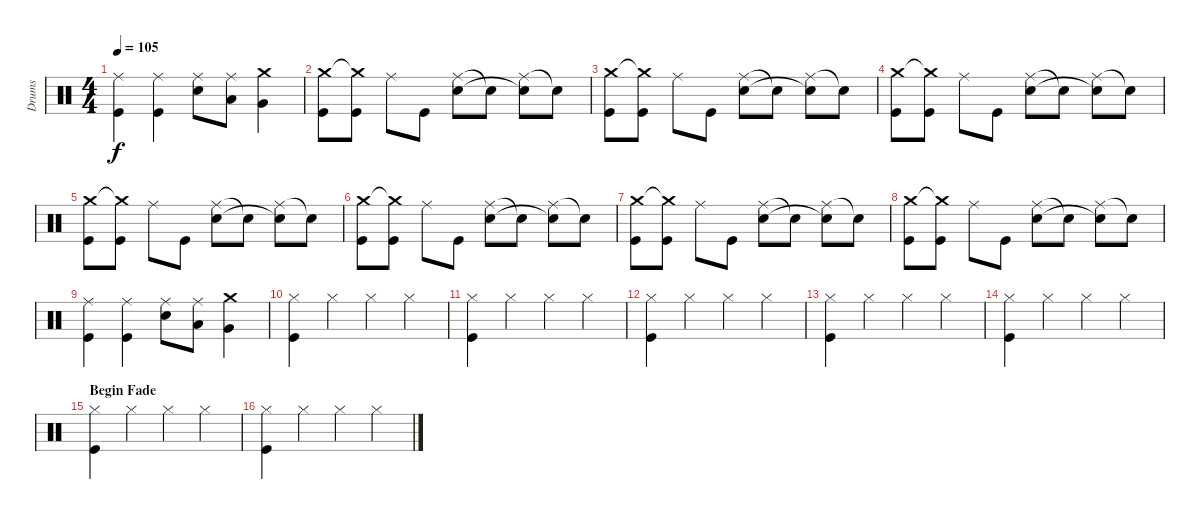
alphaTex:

\track ("Drums" "Drums") {instrument percussion}
\staff {score}
\articulation defaults
\ts (4 4)
\tempo 105
\clef neutral
\ks c
("Ride (middle)" "Kick (hit)").4{dy f} ("Ride (middle)" "Kick (hit)").4 ("Ride (middle)" "Snare (hit) 2").8 ("Ride (middle)" "Low Tom (hit)").8 ("Crash medium (hit)" "Very Low Tom (hit)").4 |
("Crash medium (hit)" "Kick (hit)").8 ("Crash medium (hit)"{t} "Kick (hit)").8 "Ride (middle)".8 "Kick (hit)".8 ("Ride (middle)" "Snare (hit) 2").8 "Snare (hit) 2"{t}.8 ("Ride (middle)" "Snare (hit) 2"{t}).8 "Snare (hit) 2"{t}.8 |
("Crash medium (hit)" "Kick (hit)").8 ("Crash medium (hit)"{t} "Kick (hit)").8 "Ride (middle)".8 "Kick (hit)".8 ("Ride (middle)" "Snare (hit) 2").8 "Snare (hit) 2"{t}.8 ("Ride (middle)" "Snare (hit) 2"{t}).8 "Snare (hit) 2"{t}.8 |
("Crash medium (hit)" "Kick (hit)").8 ("Crash medium (hit)"{t} "Kick (hit)").8 "Ride (middle)".8 "Kick (hit)".8 ("Ride (middle)" "Snare (hit) 2").8 "Snare (hit) 2"{t}.8 ("Ride (middle)" "Snare (hit) 2"{t}).8 "Snare (hit) 2"{t}.8 |
("Crash medium (hit)" "Kick (hit)").8 ("Crash medium (hit)"{t} "Kick (hit)").8 "Ride (middle)".8 "Kick (hit)".8 ("Ride (middle)" "Snare (hit) 2").8 "Snare (hit) 2"{t}.8 ("Ride (middle)" "Snare (hit) 2"{t}).8 "Snare (hit) 2"{t}.8 |
("Crash medium (hit)" "Kick (hit)").8 ("Crash medium (hit)"{t} "Kick (hit)").8 "Ride (middle)".8 "Kick (hit)".8 ("Ride (middle)" "Snare (hit) 2").8 "Snare (hit) 2"{t}.8 ("Ride (middle)" "Snare (hit) 2"{t}).8 "Snare (hit) 2"{t}.8 |
("Crash medium (hit)" "Kick (hit)").8 ("Crash medium (hit)"{t} "Kick (hit)").8 "Ride (middle)".8 "Kick (hit)".8 ("Ride (middle)" "Snare (hit) 2").8 "Snare (hit) 2"{t}.8 ("Ride (middle)" "Snare (hit) 2"{t}).8 "Snare (hit) 2"{t}.8 |
("Crash medium (hit)" "Kick (hit)").8 ("Crash medium (hit)"{t} "Kick (hit)").8 "Ride (middle)".8 "Kick (hit)".8 ("Ride (middle)" "Snare (hit) 2").8 "Snare (hit) 2"{t}.8 ("Ride (middle)" "Snare (hit) 2"{t}).8 "Snare (hit) 2"{t}.8 |
("Ride (middle)" "Kick (hit)").4 ("Ride (middle)" "Kick (hit)").4 ("Ride (middle)" "Snare (hit) 2").8 ("Ride (middle)" "Low Tom (hit)").8 ("Crash medium (hit)" "Very Low Tom (hit)").4 |
("Hi-Hat (closed)" "Kick (hit)").4 "Hi-Hat (closed)".4 "Hi-Hat (closed)".4 "Hi-Hat (closed)".4 |
("Hi-Hat (closed)" "Kick (hit)").4 "Hi-Hat (closed)".4 "Hi-Hat (closed)".4 "Hi-Hat (closed)".4 |
("Hi-Hat (closed)" "Kick (hit)").4 "Hi-Hat (closed)".4 "Hi-Hat (closed)".4 "Hi-Hat (closed)".4 |
("Hi-Hat (closed)" "Kick (hit)").4 "Hi-Hat (closed)".4 "Hi-Hat (closed)".4 "Hi-Hat (closed)".4 |
("Hi-Hat (closed)" "Kick (hit)").4 "Hi-Hat (closed)".4 "Hi-Hat (closed)".4 "Hi-Hat (closed)".4 |
\section ("" "Begin Fade")
("Hi-Hat (closed)" "Kick (hit)").4 "Hi-Hat (closed)".4 "Hi-Hat (closed)".4 "Hi-Hat (closed)".4 |
("Hi-Hat (closed)" "Kick (hit)").4 "Hi-Hat (closed)".4 "Hi-Hat (closed)".4 "Hi-Hat (closed)".4
